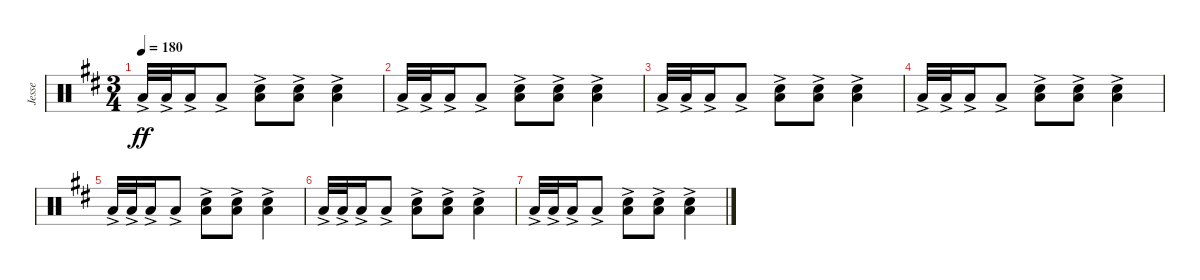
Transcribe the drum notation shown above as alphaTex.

\track ("Jesse" "Jesse") {instrument percussion}
\staff {score}
\articulation defaults
\ts (3 4)
\tempo 180
\clef neutral
\ks d "Low Floor Tom (hit)"{ac}.32{dy ff} "Low Floor Tom (hit)"{ac}.32 "Low Floor Tom (hit)"{ac}.16 "Low Floor Tom (hit)"{ac}.8
("Electric Snare (hit)"{ac} "Low Floor Tom (hit)"{ac}).8 ("Electric Snare (hit)"{ac} "Low Floor Tom (hit)"{ac}).8 ("Electric Snare (hit)"{ac} "Low Floor Tom (hit)"{ac}).4 |
"Low Floor Tom (hit)"{ac}.32{volume 0} "Low Floor Tom (hit)"{ac}.32 "Low Floor Tom (hit)"{ac}.16 "Low Floor Tom (hit)"{ac}.8 ("Electric Snare (hit)"{ac} "Low Floor Tom (hit)"{ac}).8 ("Electric Snare (hit)"{ac} "Low Floor Tom (hit)"{ac}).8 ("Electric Snare (hit)"{ac} "Low Floor Tom (hit)"{ac}).4 |
"Low Floor Tom (hit)"{ac}.32 "Low Floor Tom (hit)"{ac}.32 "Low Floor Tom (hit)"{ac}.16 "Low Floor Tom (hit)"{ac}.8 ("Electric Snare (hit)"{ac} "Low Floor Tom (hit)"{ac}).8 ("Electric Snare (hit)"{ac} "Low Floor Tom (hit)"{ac}).8 ("Electric Snare (hit)"{ac} "Low Floor Tom (hit)"{ac}).4 |
"Low Floor Tom (hit)"{ac}.32 "Low Floor Tom (hit)"{ac}.32 "Low Floor Tom (hit)"{ac}.16 "Low Floor Tom (hit)"{ac}.8 ("Electric Snare (hit)"{ac} "Low Floor Tom (hit)"{ac}).8 ("Electric Snare (hit)"{ac} "Low Floor Tom (hit)"{ac}).8 ("Electric Snare (hit)"{ac} "Low Floor Tom (hit)"{ac}).4 |
"Low Floor Tom (hit)"{ac}.32 "Low Floor Tom (hit)"{ac}.32 "Low Floor Tom (hit)"{ac}.16 "Low Floor Tom (hit)"{ac}.8 ("Electric Snare (hit)"{ac} "Low Floor Tom (hit)"{ac}).8 ("Electric Snare (hit)"{ac} "Low Floor Tom (hit)"{ac}).8 ("Electric Snare (hit)"{ac} "Low Floor Tom (hit)"{ac}).4 |
"Low Floor Tom (hit)"{ac}.32 "Low Floor Tom (hit)"{ac}.32 "Low Floor Tom (hit)"{ac}.16 "Low Floor Tom (hit)"{ac}.8 ("Electric Snare (hit)"{ac} "Low Floor Tom (hit)"{ac}).8 ("Electric Snare (hit)"{ac} "Low Floor Tom (hit)"{ac}).8 ("Electric Snare (hit)"{ac} "Low Floor Tom (hit)"{ac}).4 |
"Low Floor Tom (hit)"{ac}.32 "Low Floor Tom (hit)"{ac}.32 "Low Floor Tom (hit)"{ac}.16 "Low Floor Tom (hit)"{ac}.8 ("Electric Snare (hit)"{ac} "Low Floor Tom (hit)"{ac}).8 ("Electric Snare (hit)"{ac} "Low Floor Tom (hit)"{ac}).8 ("Electric Snare (hit)"{ac} "Low Floor Tom (hit)"{ac}).4
